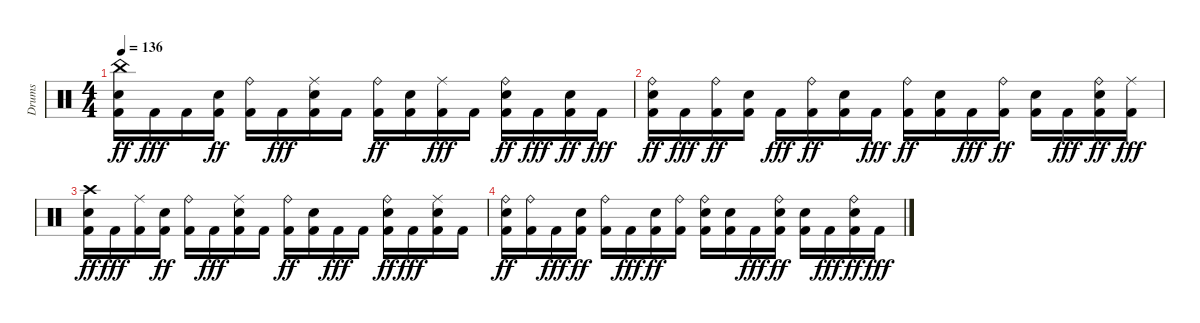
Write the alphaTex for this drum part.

\track ("Drums" "Drums") {instrument percussion}
\staff {score}
\articulation defaults
\ts (4 4)
\tempo 136
\clef neutral
\ks c
("Kick (hit) 2" "Snare (hit) 2" "China (hit)").16{dy ff} "Kick (hit) 2".16{dy fff} "Kick (hit) 2".16 ("Kick (hit) 2" "Snare (hit) 2").16{dy ff} ("Kick (hit) 2" "Ride (bell)").16 "Kick (hit) 2".16{dy fff} ("Kick (hit) 2" "Snare (hit) 2" "Ride (middle)").16 "Kick (hit) 2".16 ("Kick (hit) 2" "Ride (bell)").16{dy ff} ("Kick (hit) 2" "Snare (hit) 2").16 ("Kick (hit) 2" "Ride (middle)").16{dy fff} "Kick (hit) 2".16 ("Kick (hit) 2" "Snare (hit) 2" "Ride (bell)").16{dy ff} "Kick (hit) 2".16{dy fff} ("Kick (hit) 2" "Snare (hit) 2").16{dy ff} "Kick (hit) 2".16{dy fff} |
("Kick (hit) 2" "Snare (hit) 2" "Ride (bell)").16{dy ff} "Kick (hit) 2".16{dy fff} ("Kick (hit) 2" "Ride (bell)").16{dy ff} ("Kick (hit) 2" "Snare (hit) 2").16 "Kick (hit) 2".16{dy fff} ("Kick (hit) 2" "Ride (bell)").16{dy ff} ("Kick (hit) 2" "Snare (hit) 2").16 "Kick (hit) 2".16{dy fff} ("Kick (hit) 2" "Ride (bell)").16{dy ff} ("Kick (hit) 2" "Snare (hit) 2").16 "Kick (hit) 2".16{dy fff} ("Kick (hit) 2" "Ride (bell)").16{dy ff} ("Kick (hit) 2" "Snare (hit) 2").16 "Kick (hit) 2".16{dy fff} ("Kick (hit) 2" "Snare (hit) 2" "Ride (bell)").16{dy ff} ("Kick (hit) 2" "Ride (middle)").16{dy fff} |
("Kick (hit) 2" "Snare (hit) 2" "Crash high (hit)").16{dy ff} "Kick (hit) 2".16{dy fff} ("Kick (hit) 2" "Ride (middle)").16 ("Kick (hit) 2" "Snare (hit) 2").16{dy ff} ("Kick (hit) 2" "Ride (bell)").16 "Kick (hit) 2".16{dy fff} ("Kick (hit) 2" "Snare (hit) 2" "Ride (middle)").16 "Kick (hit) 2".16 ("Kick (hit) 2" "Ride (bell)").16{dy ff} ("Kick (hit) 2" "Snare (hit) 2").16 "Kick (hit) 2".16{dy fff} "Kick (hit) 2".16 ("Kick (hit) 2" "Snare (hit) 2" "Ride (bell)").16{dy ff} "Kick (hit) 2".16{dy fff} ("Kick (hit) 2" "Snare (hit) 2" "Ride (middle)").16 "Kick (hit) 2".16 |
("Kick (hit) 2" "Snare (hit) 2" "Ride (bell)").16{dy ff} ("Kick (hit) 2" "Ride (bell)").16 "Kick (hit) 2".16{dy fff} ("Kick (hit) 2" "Snare (hit) 2").16{dy ff} ("Kick (hit) 2" "Ride (bell)").16 "Kick (hit) 2".16{dy fff} ("Kick (hit) 2" "Snare (hit) 2").16{dy ff} ("Kick (hit) 2" "Ride (bell)").16 ("Kick (hit) 2" "Snare (hit) 2" "Ride (bell)").16 ("Kick (hit) 2" "Snare (hit) 2").16 "Kick (hit) 2".16{dy fff} ("Kick (hit) 2" "Snare (hit) 2" "Ride (bell)").16{dy ff} ("Kick (hit) 2" "Snare (hit) 2").16 "Kick (hit) 2".16{dy fff} ("Kick (hit) 2" "Snare (hit) 2" "Ride (bell)").16{dy ff} "Kick (hit) 2".16{dy fff}
